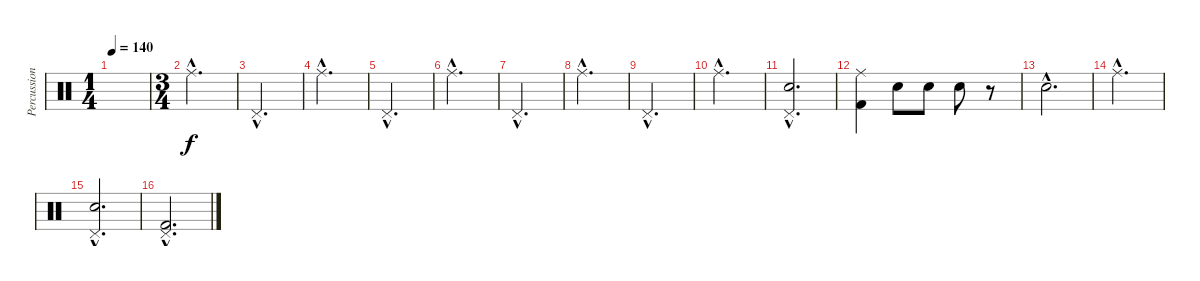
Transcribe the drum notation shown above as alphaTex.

\track ("Percussion" "Percussion") {instrument percussion}
\staff {score}
\articulation defaults
\ts (1 4)
\tempo 140
\clef neutral
\ks c
|
\ts (3 4)
"Ride (middle)"{hac}.2{d} |
"Pedal Hi-Hat (hit)"{hac}.2{d} |
"Ride (middle)"{hac}.2{d} |
"Pedal Hi-Hat (hit)"{hac}.2{d} |
"Ride (middle)"{hac}.2{d} |
"Pedal Hi-Hat (hit)"{hac}.2{d} |
"Ride (middle)"{hac}.2{d} |
"Pedal Hi-Hat (hit)"{hac}.2{d} |
"Ride (middle)"{hac}.2{d} |
("Pedal Hi-Hat (hit)"{hac} "Electric Snare (hit)"{hac}).2{d} |
("Ride (middle)" "Kick (hit) 2").4 "Electric Snare (hit)".8 "Electric Snare (hit)".8 "Electric Snare (hit)".8 r.8 |
"Electric Snare (hit)"{hac}.2{d} |
"Ride (middle)"{hac}.2{d} |
("Pedal Hi-Hat (hit)"{hac} "Electric Snare (hit)"{hac}).2{d} |
("Pedal Hi-Hat (hit)"{hac} "Kick (hit) 2"{hac}).2{d}
